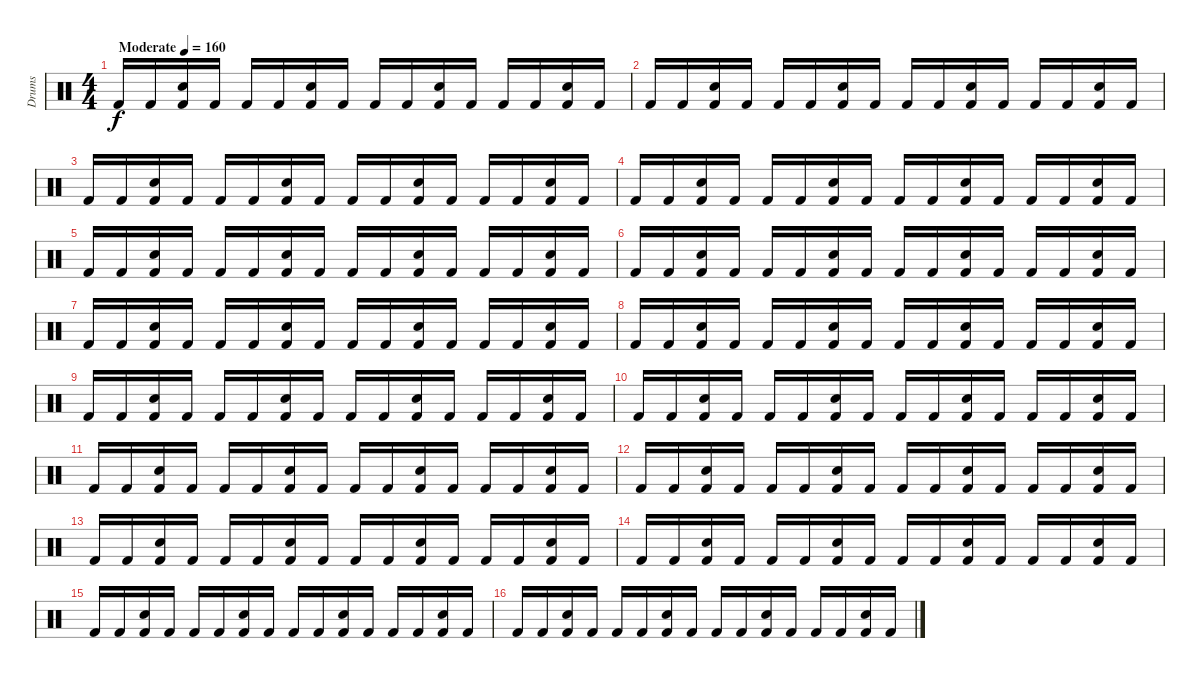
\track ("Drums" "Drums") {instrument percussion}
\staff {score}
\articulation defaults
\ts (4 4)
\tempo (160 "Moderate")
\clef neutral
\ks c "Kick (hit) 2".16{dy f} "Kick (hit) 2".16
("Snare (hit) 2" "Kick (hit) 2").16 "Kick (hit) 2".16 "Kick (hit) 2".16 "Kick (hit) 2".16 ("Snare (hit) 2" "Kick (hit) 2").16 "Kick (hit) 2".16 "Kick (hit) 2".16 "Kick (hit) 2".16 ("Snare (hit) 2" "Kick (hit) 2").16 "Kick (hit) 2".16 "Kick (hit) 2".16 "Kick (hit) 2".16 ("Snare (hit) 2" "Kick (hit) 2").16 "Kick (hit) 2".16 |
"Kick (hit) 2".16 "Kick (hit) 2".16 ("Snare (hit) 2" "Kick (hit) 2").16 "Kick (hit) 2".16 "Kick (hit) 2".16 "Kick (hit) 2".16 ("Snare (hit) 2" "Kick (hit) 2").16 "Kick (hit) 2".16 "Kick (hit) 2".16 "Kick (hit) 2".16 ("Snare (hit) 2" "Kick (hit) 2").16 "Kick (hit) 2".16 "Kick (hit) 2".16 "Kick (hit) 2".16 ("Snare (hit) 2" "Kick (hit) 2").16 "Kick (hit) 2".16 |
"Kick (hit) 2".16 "Kick (hit) 2".16 ("Snare (hit) 2" "Kick (hit) 2").16 "Kick (hit) 2".16 "Kick (hit) 2".16 "Kick (hit) 2".16 ("Snare (hit) 2" "Kick (hit) 2").16 "Kick (hit) 2".16 "Kick (hit) 2".16 "Kick (hit) 2".16 ("Snare (hit) 2" "Kick (hit) 2").16 "Kick (hit) 2".16 "Kick (hit) 2".16 "Kick (hit) 2".16 ("Snare (hit) 2" "Kick (hit) 2").16 "Kick (hit) 2".16 |
"Kick (hit) 2".16 "Kick (hit) 2".16 ("Snare (hit) 2" "Kick (hit) 2").16 "Kick (hit) 2".16 "Kick (hit) 2".16 "Kick (hit) 2".16 ("Snare (hit) 2" "Kick (hit) 2").16 "Kick (hit) 2".16 "Kick (hit) 2".16 "Kick (hit) 2".16 ("Snare (hit) 2" "Kick (hit) 2").16 "Kick (hit) 2".16 "Kick (hit) 2".16 "Kick (hit) 2".16 ("Snare (hit) 2" "Kick (hit) 2").16 "Kick (hit) 2".16 |
"Kick (hit) 2".16 "Kick (hit) 2".16 ("Snare (hit) 2" "Kick (hit) 2").16 "Kick (hit) 2".16 "Kick (hit) 2".16 "Kick (hit) 2".16 ("Snare (hit) 2" "Kick (hit) 2").16 "Kick (hit) 2".16 "Kick (hit) 2".16 "Kick (hit) 2".16 ("Snare (hit) 2" "Kick (hit) 2").16 "Kick (hit) 2".16 "Kick (hit) 2".16 "Kick (hit) 2".16 ("Snare (hit) 2" "Kick (hit) 2").16 "Kick (hit) 2".16 |
"Kick (hit) 2".16 "Kick (hit) 2".16 ("Snare (hit) 2" "Kick (hit) 2").16 "Kick (hit) 2".16 "Kick (hit) 2".16 "Kick (hit) 2".16 ("Snare (hit) 2" "Kick (hit) 2").16 "Kick (hit) 2".16 "Kick (hit) 2".16 "Kick (hit) 2".16 ("Snare (hit) 2" "Kick (hit) 2").16 "Kick (hit) 2".16 "Kick (hit) 2".16 "Kick (hit) 2".16 ("Snare (hit) 2" "Kick (hit) 2").16 "Kick (hit) 2".16 |
"Kick (hit) 2".16 "Kick (hit) 2".16 ("Snare (hit) 2" "Kick (hit) 2").16 "Kick (hit) 2".16 "Kick (hit) 2".16 "Kick (hit) 2".16 ("Snare (hit) 2" "Kick (hit) 2").16 "Kick (hit) 2".16 "Kick (hit) 2".16 "Kick (hit) 2".16 ("Snare (hit) 2" "Kick (hit) 2").16 "Kick (hit) 2".16 "Kick (hit) 2".16 "Kick (hit) 2".16 ("Snare (hit) 2" "Kick (hit) 2").16 "Kick (hit) 2".16 |
"Kick (hit) 2".16 "Kick (hit) 2".16 ("Snare (hit) 2" "Kick (hit) 2").16 "Kick (hit) 2".16 "Kick (hit) 2".16 "Kick (hit) 2".16 ("Snare (hit) 2" "Kick (hit) 2").16 "Kick (hit) 2".16 "Kick (hit) 2".16 "Kick (hit) 2".16 ("Snare (hit) 2" "Kick (hit) 2").16 "Kick (hit) 2".16 "Kick (hit) 2".16 "Kick (hit) 2".16 ("Snare (hit) 2" "Kick (hit) 2").16 "Kick (hit) 2".16 |
"Kick (hit) 2".16 "Kick (hit) 2".16 ("Snare (hit) 2" "Kick (hit) 2").16 "Kick (hit) 2".16 "Kick (hit) 2".16 "Kick (hit) 2".16 ("Snare (hit) 2" "Kick (hit) 2").16 "Kick (hit) 2".16 "Kick (hit) 2".16 "Kick (hit) 2".16 ("Snare (hit) 2" "Kick (hit) 2").16 "Kick (hit) 2".16 "Kick (hit) 2".16 "Kick (hit) 2".16 ("Snare (hit) 2" "Kick (hit) 2").16 "Kick (hit) 2".16 |
"Kick (hit) 2".16 "Kick (hit) 2".16 ("Snare (hit) 2" "Kick (hit) 2").16 "Kick (hit) 2".16 "Kick (hit) 2".16 "Kick (hit) 2".16 ("Snare (hit) 2" "Kick (hit) 2").16 "Kick (hit) 2".16 "Kick (hit) 2".16 "Kick (hit) 2".16 ("Snare (hit) 2" "Kick (hit) 2").16 "Kick (hit) 2".16 "Kick (hit) 2".16 "Kick (hit) 2".16 ("Snare (hit) 2" "Kick (hit) 2").16 "Kick (hit) 2".16 |
"Kick (hit) 2".16 "Kick (hit) 2".16 ("Snare (hit) 2" "Kick (hit) 2").16 "Kick (hit) 2".16 "Kick (hit) 2".16 "Kick (hit) 2".16 ("Snare (hit) 2" "Kick (hit) 2").16 "Kick (hit) 2".16 "Kick (hit) 2".16 "Kick (hit) 2".16 ("Snare (hit) 2" "Kick (hit) 2").16 "Kick (hit) 2".16 "Kick (hit) 2".16 "Kick (hit) 2".16 ("Snare (hit) 2" "Kick (hit) 2").16 "Kick (hit) 2".16 |
"Kick (hit) 2".16 "Kick (hit) 2".16 ("Snare (hit) 2" "Kick (hit) 2").16 "Kick (hit) 2".16 "Kick (hit) 2".16 "Kick (hit) 2".16 ("Snare (hit) 2" "Kick (hit) 2").16 "Kick (hit) 2".16 "Kick (hit) 2".16 "Kick (hit) 2".16 ("Snare (hit) 2" "Kick (hit) 2").16 "Kick (hit) 2".16 "Kick (hit) 2".16 "Kick (hit) 2".16 ("Snare (hit) 2" "Kick (hit) 2").16 "Kick (hit) 2".16 |
"Kick (hit) 2".16 "Kick (hit) 2".16 ("Snare (hit) 2" "Kick (hit) 2").16 "Kick (hit) 2".16 "Kick (hit) 2".16 "Kick (hit) 2".16 ("Snare (hit) 2" "Kick (hit) 2").16 "Kick (hit) 2".16 "Kick (hit) 2".16 "Kick (hit) 2".16 ("Snare (hit) 2" "Kick (hit) 2").16 "Kick (hit) 2".16 "Kick (hit) 2".16 "Kick (hit) 2".16 ("Snare (hit) 2" "Kick (hit) 2").16 "Kick (hit) 2".16 |
"Kick (hit) 2".16 "Kick (hit) 2".16 ("Snare (hit) 2" "Kick (hit) 2").16 "Kick (hit) 2".16 "Kick (hit) 2".16 "Kick (hit) 2".16 ("Snare (hit) 2" "Kick (hit) 2").16 "Kick (hit) 2".16 "Kick (hit) 2".16 "Kick (hit) 2".16 ("Snare (hit) 2" "Kick (hit) 2").16 "Kick (hit) 2".16 "Kick (hit) 2".16 "Kick (hit) 2".16 ("Snare (hit) 2" "Kick (hit) 2").16 "Kick (hit) 2".16 |
"Kick (hit) 2".16 "Kick (hit) 2".16 ("Snare (hit) 2" "Kick (hit) 2").16 "Kick (hit) 2".16 "Kick (hit) 2".16 "Kick (hit) 2".16 ("Snare (hit) 2" "Kick (hit) 2").16 "Kick (hit) 2".16 "Kick (hit) 2".16 "Kick (hit) 2".16 ("Snare (hit) 2" "Kick (hit) 2").16 "Kick (hit) 2".16 "Kick (hit) 2".16 "Kick (hit) 2".16 ("Snare (hit) 2" "Kick (hit) 2").16 "Kick (hit) 2".16 |
"Kick (hit) 2".16 "Kick (hit) 2".16 ("Snare (hit) 2" "Kick (hit) 2").16 "Kick (hit) 2".16 "Kick (hit) 2".16 "Kick (hit) 2".16 ("Snare (hit) 2" "Kick (hit) 2").16 "Kick (hit) 2".16 "Kick (hit) 2".16 "Kick (hit) 2".16 ("Snare (hit) 2" "Kick (hit) 2").16 "Kick (hit) 2".16 "Kick (hit) 2".16 "Kick (hit) 2".16 ("Snare (hit) 2" "Kick (hit) 2").16 "Kick (hit) 2".16
